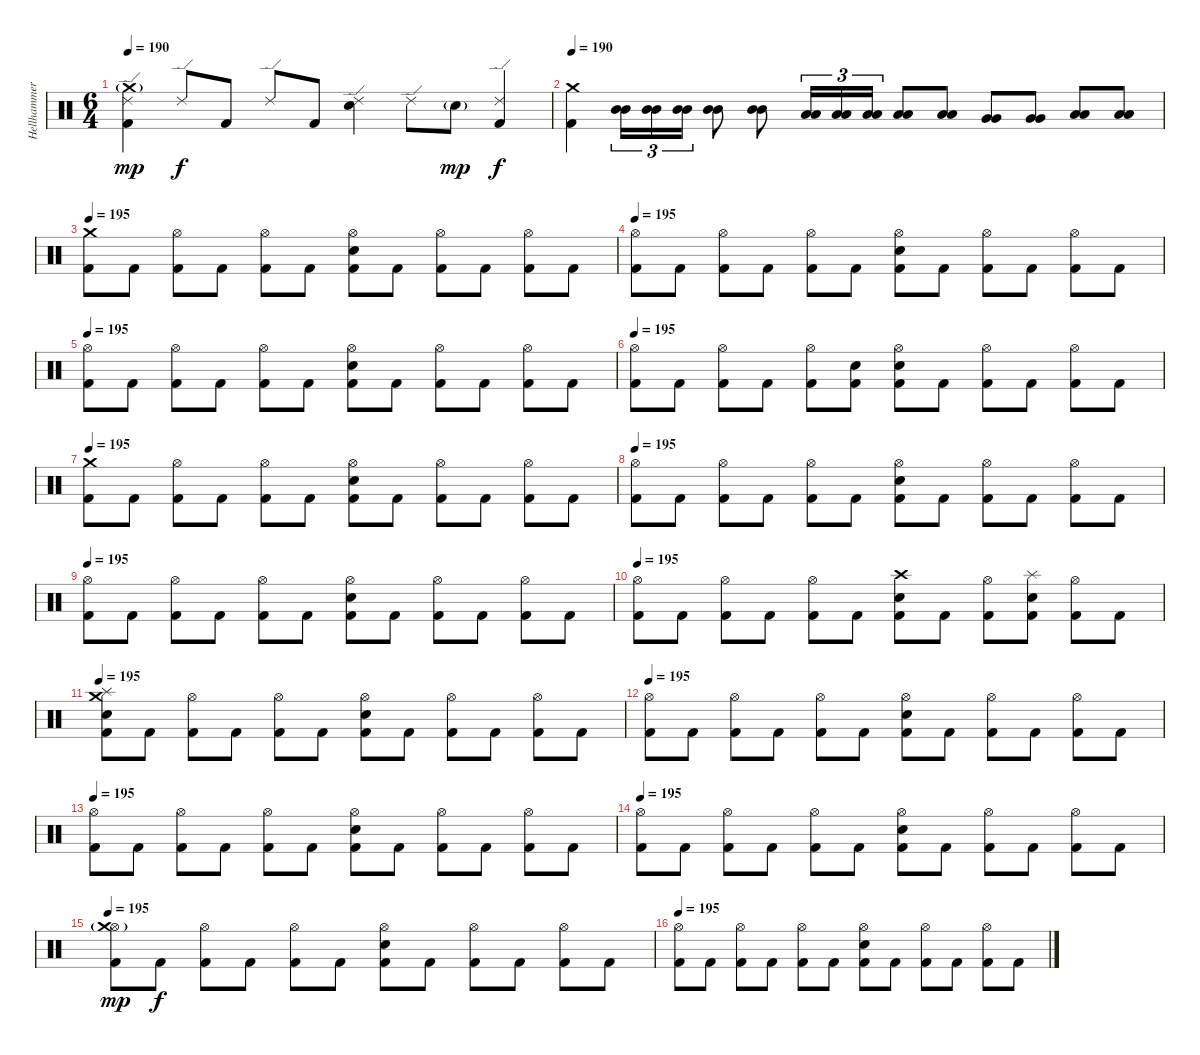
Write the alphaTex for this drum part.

\track ("Hellhammer" "Hellhammer") {instrument percussion}
\staff {score}
\articulation defaults
\ts (6 4)
\tempo 190
\clef neutral
\ks c
("Kick (hit) 2" "Ride (edge) 2" "Crash medium (hit)"{g}).4{dy mp volume 11} "Ride (edge) 2".8{dy f} "Kick (hit) 2".8 "Ride (edge) 2".8 "Kick (hit) 2".8 ("Electric Snare (hit)" "Ride (edge) 2").4 "Ride (edge) 2".8 "Electric Snare (hit)"{g}.8{dy mp} ("Kick (hit) 2" "Ride (edge) 2").4{dy f} |
\tempo 190
("Kick (hit) 2" "Crash medium (hit)").4{volume 13} ("Mid Tom (hit)" "Mid Tom (hit)").16{tu (3 2)} ("Mid Tom (hit)" "Mid Tom (hit)").16{tu (3 2)} ("Mid Tom (hit)" "Mid Tom (hit)").16{tu (3 2)} ("Mid Tom (hit)" "Mid Tom (hit)").8 ("Mid Tom (hit)" "Mid Tom (hit)").8 ("Low Tom (hit)" "Low Tom (hit)").16{tu (3 2)} ("Low Tom (hit)" "Low Tom (hit)").16{tu (3 2)} ("Low Tom (hit)" "Low Tom (hit)").16{tu (3 2)} ("Low Tom (hit)" "Low Tom (hit)").8 ("Low Tom (hit)" "Low Tom (hit)").8 ("Very Low Tom (hit)" "Very Low Tom (hit)").8 ("Very Low Tom (hit)" "Very Low Tom (hit)").8 ("Low Floor Tom (hit)" "Low Floor Tom (hit)").8 ("Low Floor Tom (hit)" "Low Floor Tom (hit)").8 |
\tempo 195
("Kick (hit) 2" "Crash medium (hit)").8 "Kick (hit) 2".8 ("Kick (hit) 2" "Hi-Hat (open)").8 "Kick (hit) 2".8 ("Kick (hit) 2" "Hi-Hat (open)").8 "Kick (hit) 2".8 ("Kick (hit) 2" "Electric Snare (hit)" "Hi-Hat (open)").8 "Kick (hit) 2".8 ("Kick (hit) 2" "Hi-Hat (open)").8 "Kick (hit) 2".8 ("Kick (hit) 2" "Hi-Hat (open)").8 "Kick (hit) 2".8 |
\tempo 195
("Kick (hit) 2" "Hi-Hat (open)").8 "Kick (hit) 2".8 ("Kick (hit) 2" "Hi-Hat (open)").8 "Kick (hit) 2".8 ("Kick (hit) 2" "Hi-Hat (open)").8 "Kick (hit) 2".8 ("Kick (hit) 2" "Electric Snare (hit)" "Hi-Hat (open)").8 "Kick (hit) 2".8 ("Kick (hit) 2" "Hi-Hat (open)").8 "Kick (hit) 2".8 ("Kick (hit) 2" "Hi-Hat (open)").8 "Kick (hit) 2".8 |
\tempo 195
("Kick (hit) 2" "Hi-Hat (open)").8 "Kick (hit) 2".8 ("Kick (hit) 2" "Hi-Hat (open)").8 "Kick (hit) 2".8 ("Kick (hit) 2" "Hi-Hat (open)").8 "Kick (hit) 2".8 ("Kick (hit) 2" "Electric Snare (hit)" "Hi-Hat (open)").8 "Kick (hit) 2".8 ("Kick (hit) 2" "Hi-Hat (open)").8 "Kick (hit) 2".8 ("Kick (hit) 2" "Hi-Hat (open)").8 "Kick (hit) 2".8 |
\tempo 195
("Kick (hit) 2" "Hi-Hat (open)").8 "Kick (hit) 2".8 ("Kick (hit) 2" "Hi-Hat (open)").8 "Kick (hit) 2".8 ("Kick (hit) 2" "Hi-Hat (open)").8 ("Kick (hit) 2" "Electric Snare (hit)").8 ("Kick (hit) 2" "Electric Snare (hit)" "Hi-Hat (open)").8 "Kick (hit) 2".8 ("Kick (hit) 2" "Hi-Hat (open)").8 "Kick (hit) 2".8 ("Kick (hit) 2" "Hi-Hat (open)").8 "Kick (hit) 2".8 |
\tempo 195
("Kick (hit) 2" "Crash medium (hit)").8 "Kick (hit) 2".8 ("Kick (hit) 2" "Hi-Hat (open)").8 "Kick (hit) 2".8 ("Kick (hit) 2" "Hi-Hat (open)").8 "Kick (hit) 2".8 ("Kick (hit) 2" "Electric Snare (hit)" "Hi-Hat (open)").8 "Kick (hit) 2".8 ("Kick (hit) 2" "Hi-Hat (open)").8 "Kick (hit) 2".8 ("Kick (hit) 2" "Hi-Hat (open)").8 "Kick (hit) 2".8 |
\tempo 195
("Kick (hit) 2" "Hi-Hat (open)").8 "Kick (hit) 2".8 ("Kick (hit) 2" "Hi-Hat (open)").8 "Kick (hit) 2".8 ("Kick (hit) 2" "Hi-Hat (open)").8 "Kick (hit) 2".8 ("Kick (hit) 2" "Electric Snare (hit)" "Hi-Hat (open)").8 "Kick (hit) 2".8 ("Kick (hit) 2" "Hi-Hat (open)").8 "Kick (hit) 2".8 ("Kick (hit) 2" "Hi-Hat (open)").8 "Kick (hit) 2".8 |
\tempo 195
("Kick (hit) 2" "Hi-Hat (open)").8 "Kick (hit) 2".8 ("Kick (hit) 2" "Hi-Hat (open)").8 "Kick (hit) 2".8 ("Kick (hit) 2" "Hi-Hat (open)").8 "Kick (hit) 2".8 ("Kick (hit) 2" "Electric Snare (hit)" "Hi-Hat (open)").8 "Kick (hit) 2".8 ("Kick (hit) 2" "Hi-Hat (open)").8 "Kick (hit) 2".8 ("Kick (hit) 2" "Hi-Hat (open)").8 "Kick (hit) 2".8 |
\tempo 195
("Kick (hit) 2" "Hi-Hat (open)").8 "Kick (hit) 2".8 ("Kick (hit) 2" "Hi-Hat (open)").8 "Kick (hit) 2".8 ("Kick (hit) 2" "Hi-Hat (open)").8 "Kick (hit) 2".8 ("Kick (hit) 2" "Electric Snare (hit)" "Crash high (hit)").8 "Kick (hit) 2".8 ("Kick (hit) 2" "Hi-Hat (open)").8 ("Kick (hit) 2" "Electric Snare (hit)" "Splash (hit)").8 ("Kick (hit) 2" "Hi-Hat (open)").8 "Kick (hit) 2".8 |
\tempo 195
("Kick (hit) 2" "Electric Snare (hit)" "Splash (hit)" "Crash medium (hit)").8 "Kick (hit) 2".8 ("Kick (hit) 2" "Hi-Hat (open)").8 "Kick (hit) 2".8 ("Kick (hit) 2" "Hi-Hat (open)").8 "Kick (hit) 2".8 ("Kick (hit) 2" "Electric Snare (hit)" "Hi-Hat (open)").8 "Kick (hit) 2".8 ("Kick (hit) 2" "Hi-Hat (open)").8 "Kick (hit) 2".8 ("Kick (hit) 2" "Hi-Hat (open)").8 "Kick (hit) 2".8 |
\tempo 195
("Kick (hit) 2" "Hi-Hat (open)").8 "Kick (hit) 2".8 ("Kick (hit) 2" "Hi-Hat (open)").8 "Kick (hit) 2".8 ("Kick (hit) 2" "Hi-Hat (open)").8 "Kick (hit) 2".8 ("Kick (hit) 2" "Electric Snare (hit)" "Hi-Hat (open)").8 "Kick (hit) 2".8 ("Kick (hit) 2" "Hi-Hat (open)").8 "Kick (hit) 2".8 ("Kick (hit) 2" "Hi-Hat (open)").8 "Kick (hit) 2".8 |
\tempo 195
("Kick (hit) 2" "Hi-Hat (open)").8 "Kick (hit) 2".8 ("Kick (hit) 2" "Hi-Hat (open)").8 "Kick (hit) 2".8 ("Kick (hit) 2" "Hi-Hat (open)").8 "Kick (hit) 2".8 ("Kick (hit) 2" "Electric Snare (hit)" "Hi-Hat (open)").8 "Kick (hit) 2".8 ("Kick (hit) 2" "Hi-Hat (open)").8 "Kick (hit) 2".8 ("Kick (hit) 2" "Hi-Hat (open)").8 "Kick (hit) 2".8 |
\tempo 195
("Kick (hit) 2" "Hi-Hat (open)").8 "Kick (hit) 2".8 ("Kick (hit) 2" "Hi-Hat (open)").8 "Kick (hit) 2".8 ("Kick (hit) 2" "Hi-Hat (open)").8 "Kick (hit) 2".8 ("Kick (hit) 2" "Electric Snare (hit)" "Hi-Hat (open)").8 "Kick (hit) 2".8 ("Kick (hit) 2" "Hi-Hat (open)").8 "Kick (hit) 2".8 ("Kick (hit) 2" "Hi-Hat (open)").8 "Kick (hit) 2".8 |
\tempo 195
("Kick (hit) 2" "Hi-Hat (open)" "Crash medium (hit)"{g}).8{dy mp} "Kick (hit) 2".8{dy f} ("Kick (hit) 2" "Hi-Hat (open)").8 "Kick (hit) 2".8 ("Kick (hit) 2" "Hi-Hat (open)").8 "Kick (hit) 2".8 ("Kick (hit) 2" "Electric Snare (hit)" "Hi-Hat (open)").8 "Kick (hit) 2".8 ("Kick (hit) 2" "Hi-Hat (open)").8 "Kick (hit) 2".8 ("Kick (hit) 2" "Hi-Hat (open)").8 "Kick (hit) 2".8 |
\tempo 195
("Kick (hit) 2" "Hi-Hat (open)").8 "Kick (hit) 2".8 ("Kick (hit) 2" "Hi-Hat (open)").8 "Kick (hit) 2".8 ("Kick (hit) 2" "Hi-Hat (open)").8 "Kick (hit) 2".8 ("Kick (hit) 2" "Electric Snare (hit)" "Hi-Hat (open)").8 "Kick (hit) 2".8 ("Kick (hit) 2" "Hi-Hat (open)").8 "Kick (hit) 2".8 ("Kick (hit) 2" "Hi-Hat (open)").8 "Kick (hit) 2".8
